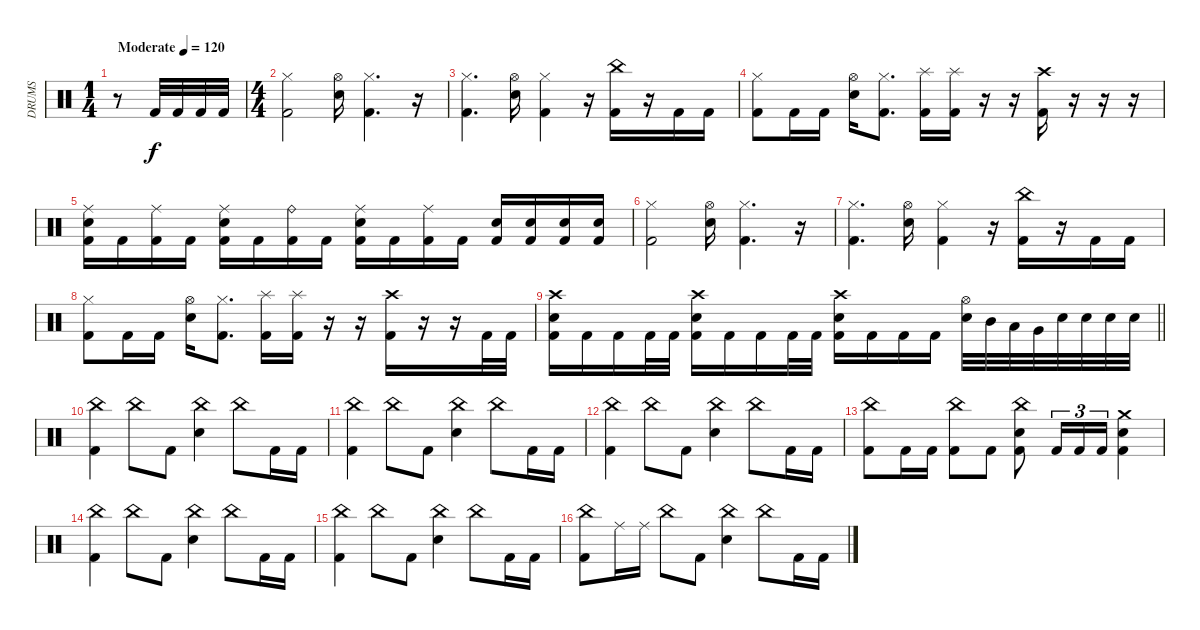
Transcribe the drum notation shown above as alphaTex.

\track ("DRUMS" "DRUMS") {instrument percussion}
\staff {score}
\articulation defaults
\ts (1 4)
\tempo (120 "Moderate")
\clef neutral
\ks c
r.8{dy f} "Kick (hit) 2".32 "Kick (hit) 2".32 "Kick (hit) 2".32 "Kick (hit) 2".32 |
\ts (4 4)
("Hi-Hat (closed)" "Kick (hit) 2").2 ("Hi-Hat (open)" "Electric Snare (hit)").16 ("Hi-Hat (closed)" "Kick (hit) 2").4{d} r.16 |
("Hi-Hat (closed)" "Kick (hit) 2").4{d} ("Hi-Hat (open)" "Electric Snare (hit)").16 ("Hi-Hat (closed)" "Kick (hit) 2").4 r.16 ("China (hit)" "Kick (hit) 2").16 r.16 "Kick (hit) 2".16 "Kick (hit) 2".16 |
("Hi-Hat (closed)" "Kick (hit) 2").8 "Kick (hit) 2".16 "Kick (hit) 2".16 ("Hi-Hat (open)" "Electric Snare (hit)").16 ("Hi-Hat (closed)" "Kick (hit) 2").8{d} ("Splash (hit)" "Kick (hit) 2").16 ("Splash (hit)" "Kick (hit) 2").16 r.16 r.16 ("Crash high (hit)" "Kick (hit) 2").16 r.16 r.16 r.16 |
("Ride (middle)" "Electric Snare (hit)" "Kick (hit) 2").16 "Kick (hit) 2".16 ("Ride (middle)" "Kick (hit) 2").16 "Kick (hit) 2".16 ("Ride (middle)" "Electric Snare (hit)" "Kick (hit) 2").16 "Kick (hit) 2".16 ("Ride (bell)" "Kick (hit) 2").16 "Kick (hit) 2".16 ("Ride (middle)" "Electric Snare (hit)" "Kick (hit) 2").16 "Kick (hit) 2".16 ("Ride (middle)" "Kick (hit) 2").16 "Kick (hit) 2".16 ("Electric Snare (hit)" "Kick (hit) 2").16 ("Electric Snare (hit)" "Kick (hit) 2").16 ("Electric Snare (hit)" "Kick (hit) 2").16 ("Electric Snare (hit)" "Kick (hit) 2").16 |
("Hi-Hat (closed)" "Kick (hit) 2").2 ("Hi-Hat (open)" "Electric Snare (hit)").16 ("Hi-Hat (closed)" "Kick (hit) 2").4{d} r.16 |
("Hi-Hat (closed)" "Kick (hit) 2").4{d} ("Hi-Hat (open)" "Electric Snare (hit)").16 ("Hi-Hat (closed)" "Kick (hit) 2").4 r.16 ("China (hit)" "Kick (hit) 2").16 r.16 "Kick (hit) 2".16 "Kick (hit) 2".16 |
("Hi-Hat (closed)" "Kick (hit) 2").8 "Kick (hit) 2".16 "Kick (hit) 2".16 ("Hi-Hat (open)" "Electric Snare (hit)").16 ("Hi-Hat (closed)" "Kick (hit) 2").8{d} ("Splash (hit)" "Kick (hit) 2").16 ("Splash (hit)" "Kick (hit) 2").16 r.16 r.16 ("Crash high (hit)" "Kick (hit) 2").16 r.16 r.16 "Kick (hit) 2".32 "Kick (hit) 2".32 |
\barLineRight lightlight
("Crash high (hit)" "Electric Snare (hit)" "Kick (hit) 2").16 "Kick (hit) 2".16 "Kick (hit) 2".16 "Kick (hit) 2".32 "Kick (hit) 2".32 ("Crash high (hit)" "Electric Snare (hit)" "Kick (hit) 2").16 "Kick (hit) 2".16 "Kick (hit) 2".16 "Kick (hit) 2".32 "Kick (hit) 2".32 ("Crash high (hit)" "Electric Snare (hit)" "Kick (hit) 2").16 "Kick (hit) 2".16 "Kick (hit) 2".16 "Kick (hit) 2".16 ("Hi-Hat (open)" "Electric Snare (hit)").32 "Mid Tom (hit)".32 "Low Tom (hit)".32 "Very Low Tom (hit)".32 "Electric Snare (hit)".32 "Electric Snare (hit)".32 "Electric Snare (hit)".32 "Electric Snare (hit)".32 |
("China (hit)" "Kick (hit) 2").4 "China (hit)".8 "Kick (hit) 2".8 ("China (hit)" "Electric Snare (hit)").4 "China (hit)".8 "Kick (hit) 2".16 "Kick (hit) 2".16 |
("China (hit)" "Kick (hit) 2").4 "China (hit)".8 "Kick (hit) 2".8 ("China (hit)" "Electric Snare (hit)").4 "China (hit)".8 "Kick (hit) 2".16 "Kick (hit) 2".16 |
("China (hit)" "Kick (hit) 2").4 "China (hit)".8 "Kick (hit) 2".8 ("China (hit)" "Electric Snare (hit)").4 "China (hit)".8 "Kick (hit) 2".16 "Kick (hit) 2".16 |
("China (hit)" "Kick (hit) 2").8 "Kick (hit) 2".16 "Kick (hit) 2".16 ("China (hit)" "Kick (hit) 2").8 "Kick (hit) 2".8 ("China (hit)" "Electric Snare (hit)" "Kick (hit) 2").8 "Kick (hit) 2".16{tu (3 2)} "Kick (hit) 2".16{tu (3 2)} "Kick (hit) 2".16{tu (3 2)} ("Crash medium (hit)" "Electric Snare (hit)" "Kick (hit) 2").4 |
("China (hit)" "Kick (hit) 2").4 "China (hit)".8 "Kick (hit) 2".8 ("China (hit)" "Electric Snare (hit)").4 "China (hit)".8 "Kick (hit) 2".16 "Kick (hit) 2".16 |
("China (hit)" "Kick (hit) 2").4 "China (hit)".8 "Kick (hit) 2".8 ("China (hit)" "Electric Snare (hit)").4 "China (hit)".8 "Kick (hit) 2".16 "Kick (hit) 2".16 |
("China (hit)" "Kick (hit) 2").8 "Ride (middle)".16 "Ride (middle)".16 "China (hit)".8 "Kick (hit) 2".8 ("China (hit)" "Electric Snare (hit)").4 "China (hit)".8 "Kick (hit) 2".16 "Kick (hit) 2".16
